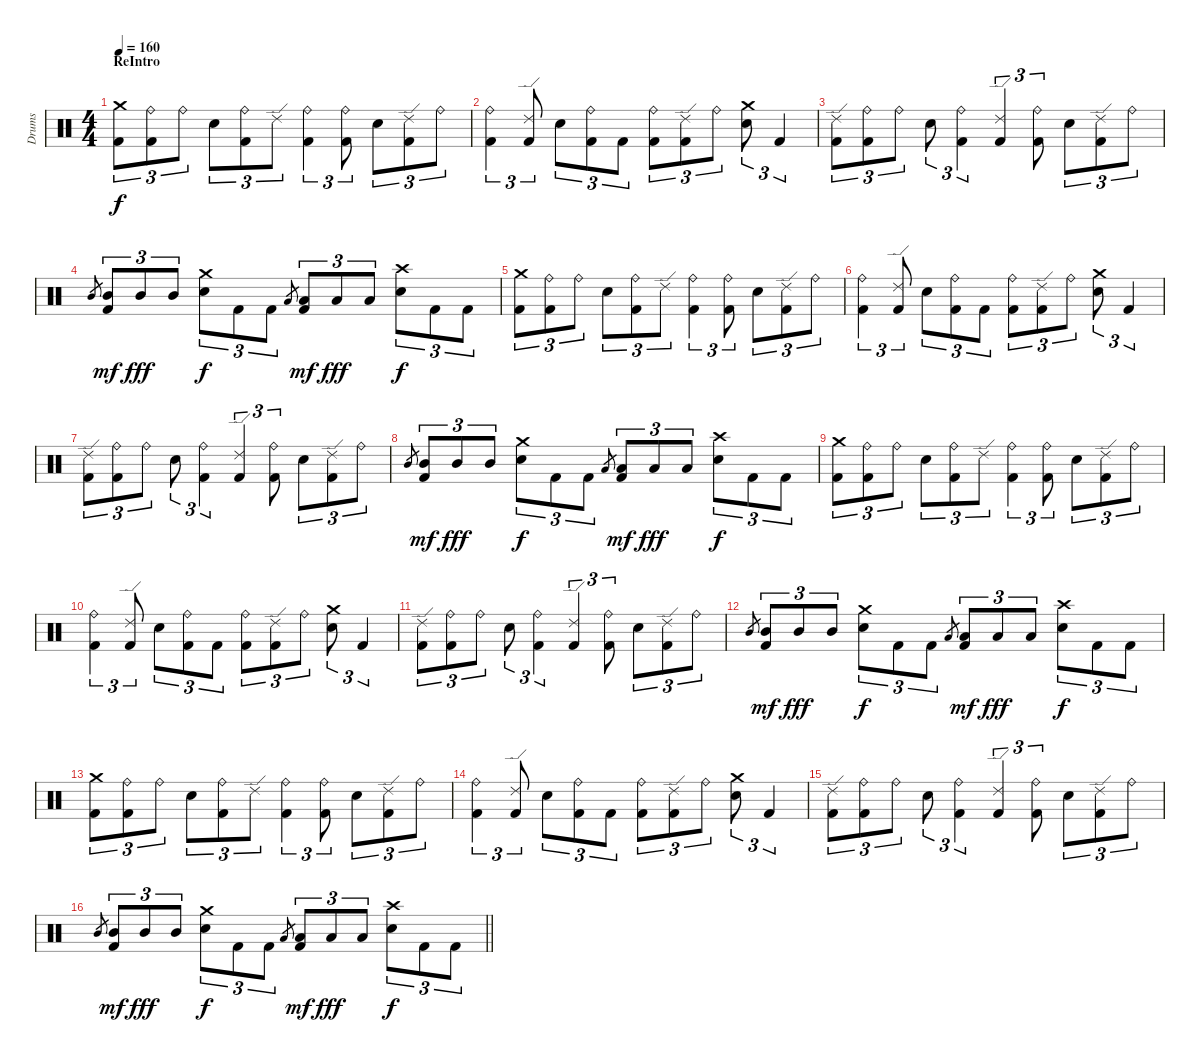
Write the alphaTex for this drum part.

\track ("Drums" "Drums") {instrument percussion}
\staff {score}
\articulation defaults
\ts (4 4)
\section ("" "ReIntro")
\tempo 160
\clef neutral
\ks c
("Crash medium (hit)" "Kick (hit) 2").8{tu (3 2) dy f} ("Ride (bell)" "Kick (hit) 2").8{tu (3 2)} "Ride (bell)".8{tu (3 2)} "Electric Snare (hit)".8{tu (3 2)} ("Ride (bell)" "Kick (hit) 2").8{tu (3 2)} "Ride (edge) 2".8{tu (3 2)} ("Ride (bell)" "Kick (hit) 2").4{tu (3 2)} ("Ride (bell)" "Kick (hit) 2").8{tu (3 2)} "Electric Snare (hit)".8{tu (3 2)} ("Ride (edge) 2" "Kick (hit) 2").8{tu (3 2)} "Ride (bell)".8{tu (3 2)} |
("Ride (bell)" "Kick (hit) 2").4{tu (3 2)} ("Ride (edge) 2" "Kick (hit) 2").8{tu (3 2)} "Electric Snare (hit)".8{tu (3 2)} ("Ride (bell)" "Kick (hit) 2").8{tu (3 2)} "Kick (hit) 2".8{tu (3 2)} ("Ride (bell)" "Kick (hit) 2").8{tu (3 2)} ("Ride (edge) 2" "Kick (hit) 2").8{tu (3 2)} "Ride (bell)".8{tu (3 2)} ("Crash medium (hit)" "Electric Snare (hit)").8{tu (3 2)} "Kick (hit) 2".4{tu (3 2)} |
("Ride (edge) 2" "Kick (hit) 2").8{tu (3 2)} ("Ride (bell)" "Kick (hit) 2").8{tu (3 2)} "Ride (bell)".8{tu (3 2)} "Electric Snare (hit)".8{tu (3 2)} ("Ride (bell)" "Kick (hit) 2").4{tu (3 2)} ("Ride (edge) 2" "Kick (hit) 2").4{tu (3 2)} ("Ride (bell)" "Kick (hit) 2").8{tu (3 2)} "Electric Snare (hit)".8{tu (3 2)} ("Ride (edge) 2" "Kick (hit) 2").8{tu (3 2)} "Ride (bell)".8{tu (3 2)} |
"Mid Tom (hit)".8{gr} ("Mid Tom (hit)" "Kick (hit) 2").8{tu (3 2) dy mf} "Mid Tom (hit)".8{tu (3 2) dy fff} "Mid Tom (hit)".8{tu (3 2)} ("Crash medium (hit)" "Electric Snare (hit)").8{tu (3 2) dy f} "Kick (hit) 2".8{tu (3 2)} "Kick (hit) 2".8{tu (3 2)} "Low Tom (hit)".8{gr} ("Low Tom (hit)" "Kick (hit) 2").8{tu (3 2) dy mf} "Low Tom (hit)".8{tu (3 2) dy fff} "Low Tom (hit)".8{tu (3 2)} ("Crash high (hit)" "Electric Snare (hit)").8{tu (3 2) dy f} "Kick (hit) 2".8{tu (3 2)} "Kick (hit) 2".8{tu (3 2)} |
("Crash medium (hit)" "Kick (hit) 2").8{tu (3 2)} ("Ride (bell)" "Kick (hit) 2").8{tu (3 2)} "Ride (bell)".8{tu (3 2)} "Electric Snare (hit)".8{tu (3 2)} ("Ride (bell)" "Kick (hit) 2").8{tu (3 2)} "Ride (edge) 2".8{tu (3 2)} ("Ride (bell)" "Kick (hit) 2").4{tu (3 2)} ("Ride (bell)" "Kick (hit) 2").8{tu (3 2)} "Electric Snare (hit)".8{tu (3 2)} ("Ride (edge) 2" "Kick (hit) 2").8{tu (3 2)} "Ride (bell)".8{tu (3 2)} |
("Ride (bell)" "Kick (hit) 2").4{tu (3 2)} ("Ride (edge) 2" "Kick (hit) 2").8{tu (3 2)} "Electric Snare (hit)".8{tu (3 2)} ("Ride (bell)" "Kick (hit) 2").8{tu (3 2)} "Kick (hit) 2".8{tu (3 2)} ("Ride (bell)" "Kick (hit) 2").8{tu (3 2)} ("Ride (edge) 2" "Kick (hit) 2").8{tu (3 2)} "Ride (bell)".8{tu (3 2)} ("Crash medium (hit)" "Electric Snare (hit)").8{tu (3 2)} "Kick (hit) 2".4{tu (3 2)} |
("Ride (edge) 2" "Kick (hit) 2").8{tu (3 2)} ("Ride (bell)" "Kick (hit) 2").8{tu (3 2)} "Ride (bell)".8{tu (3 2)} "Electric Snare (hit)".8{tu (3 2)} ("Ride (bell)" "Kick (hit) 2").4{tu (3 2)} ("Ride (edge) 2" "Kick (hit) 2").4{tu (3 2)} ("Ride (bell)" "Kick (hit) 2").8{tu (3 2)} "Electric Snare (hit)".8{tu (3 2)} ("Ride (edge) 2" "Kick (hit) 2").8{tu (3 2)} "Ride (bell)".8{tu (3 2)} |
"Mid Tom (hit)".8{gr} ("Mid Tom (hit)" "Kick (hit) 2").8{tu (3 2) dy mf} "Mid Tom (hit)".8{tu (3 2) dy fff} "Mid Tom (hit)".8{tu (3 2)} ("Crash medium (hit)" "Electric Snare (hit)").8{tu (3 2) dy f} "Kick (hit) 2".8{tu (3 2)} "Kick (hit) 2".8{tu (3 2)} "Low Tom (hit)".8{gr} ("Low Tom (hit)" "Kick (hit) 2").8{tu (3 2) dy mf} "Low Tom (hit)".8{tu (3 2) dy fff} "Low Tom (hit)".8{tu (3 2)} ("Crash high (hit)" "Electric Snare (hit)").8{tu (3 2) dy f} "Kick (hit) 2".8{tu (3 2)} "Kick (hit) 2".8{tu (3 2)} |
("Crash medium (hit)" "Kick (hit) 2").8{tu (3 2)} ("Ride (bell)" "Kick (hit) 2").8{tu (3 2)} "Ride (bell)".8{tu (3 2)} "Electric Snare (hit)".8{tu (3 2)} ("Ride (bell)" "Kick (hit) 2").8{tu (3 2)} "Ride (edge) 2".8{tu (3 2)} ("Ride (bell)" "Kick (hit) 2").4{tu (3 2)} ("Ride (bell)" "Kick (hit) 2").8{tu (3 2)} "Electric Snare (hit)".8{tu (3 2)} ("Ride (edge) 2" "Kick (hit) 2").8{tu (3 2)} "Ride (bell)".8{tu (3 2)} |
("Ride (bell)" "Kick (hit) 2").4{tu (3 2)} ("Ride (edge) 2" "Kick (hit) 2").8{tu (3 2)} "Electric Snare (hit)".8{tu (3 2)} ("Ride (bell)" "Kick (hit) 2").8{tu (3 2)} "Kick (hit) 2".8{tu (3 2)} ("Ride (bell)" "Kick (hit) 2").8{tu (3 2)} ("Ride (edge) 2" "Kick (hit) 2").8{tu (3 2)} "Ride (bell)".8{tu (3 2)} ("Crash medium (hit)" "Electric Snare (hit)").8{tu (3 2)} "Kick (hit) 2".4{tu (3 2)} |
("Ride (edge) 2" "Kick (hit) 2").8{tu (3 2)} ("Ride (bell)" "Kick (hit) 2").8{tu (3 2)} "Ride (bell)".8{tu (3 2)} "Electric Snare (hit)".8{tu (3 2)} ("Ride (bell)" "Kick (hit) 2").4{tu (3 2)} ("Ride (edge) 2" "Kick (hit) 2").4{tu (3 2)} ("Ride (bell)" "Kick (hit) 2").8{tu (3 2)} "Electric Snare (hit)".8{tu (3 2)} ("Ride (edge) 2" "Kick (hit) 2").8{tu (3 2)} "Ride (bell)".8{tu (3 2)} |
"Mid Tom (hit)".8{gr} ("Mid Tom (hit)" "Kick (hit) 2").8{tu (3 2) dy mf} "Mid Tom (hit)".8{tu (3 2) dy fff} "Mid Tom (hit)".8{tu (3 2)} ("Crash medium (hit)" "Electric Snare (hit)").8{tu (3 2) dy f} "Kick (hit) 2".8{tu (3 2)} "Kick (hit) 2".8{tu (3 2)} "Low Tom (hit)".8{gr} ("Low Tom (hit)" "Kick (hit) 2").8{tu (3 2) dy mf} "Low Tom (hit)".8{tu (3 2) dy fff} "Low Tom (hit)".8{tu (3 2)} ("Crash high (hit)" "Electric Snare (hit)").8{tu (3 2) dy f} "Kick (hit) 2".8{tu (3 2)} "Kick (hit) 2".8{tu (3 2)} |
("Crash medium (hit)" "Kick (hit) 2").8{tu (3 2)} ("Ride (bell)" "Kick (hit) 2").8{tu (3 2)} "Ride (bell)".8{tu (3 2)} "Electric Snare (hit)".8{tu (3 2)} ("Ride (bell)" "Kick (hit) 2").8{tu (3 2)} "Ride (edge) 2".8{tu (3 2)} ("Ride (bell)" "Kick (hit) 2").4{tu (3 2)} ("Ride (bell)" "Kick (hit) 2").8{tu (3 2)} "Electric Snare (hit)".8{tu (3 2)} ("Ride (edge) 2" "Kick (hit) 2").8{tu (3 2)} "Ride (bell)".8{tu (3 2)} |
("Ride (bell)" "Kick (hit) 2").4{tu (3 2)} ("Ride (edge) 2" "Kick (hit) 2").8{tu (3 2)} "Electric Snare (hit)".8{tu (3 2)} ("Ride (bell)" "Kick (hit) 2").8{tu (3 2)} "Kick (hit) 2".8{tu (3 2)} ("Ride (bell)" "Kick (hit) 2").8{tu (3 2)} ("Ride (edge) 2" "Kick (hit) 2").8{tu (3 2)} "Ride (bell)".8{tu (3 2)} ("Crash medium (hit)" "Electric Snare (hit)").8{tu (3 2)} "Kick (hit) 2".4{tu (3 2)} |
("Ride (edge) 2" "Kick (hit) 2").8{tu (3 2)} ("Ride (bell)" "Kick (hit) 2").8{tu (3 2)} "Ride (bell)".8{tu (3 2)} "Electric Snare (hit)".8{tu (3 2)} ("Ride (bell)" "Kick (hit) 2").4{tu (3 2)} ("Ride (edge) 2" "Kick (hit) 2").4{tu (3 2)} ("Ride (bell)" "Kick (hit) 2").8{tu (3 2)} "Electric Snare (hit)".8{tu (3 2)} ("Ride (edge) 2" "Kick (hit) 2").8{tu (3 2)} "Ride (bell)".8{tu (3 2)} |
\barLineRight lightlight "Mid Tom (hit)".8{gr}
("Mid Tom (hit)" "Kick (hit) 2").8{tu (3 2) dy mf} "Mid Tom (hit)".8{tu (3 2) dy fff} "Mid Tom (hit)".8{tu (3 2)} ("Crash medium (hit)" "Electric Snare (hit)").8{tu (3 2) dy f} "Kick (hit) 2".8{tu (3 2)} "Kick (hit) 2".8{tu (3 2)} "Low Tom (hit)".8{gr} ("Low Tom (hit)" "Kick (hit) 2").8{tu (3 2) dy mf} "Low Tom (hit)".8{tu (3 2) dy fff} "Low Tom (hit)".8{tu (3 2)} ("Crash high (hit)" "Electric Snare (hit)").8{tu (3 2) dy f} "Kick (hit) 2".8{tu (3 2)} "Kick (hit) 2".8{tu (3 2)}
